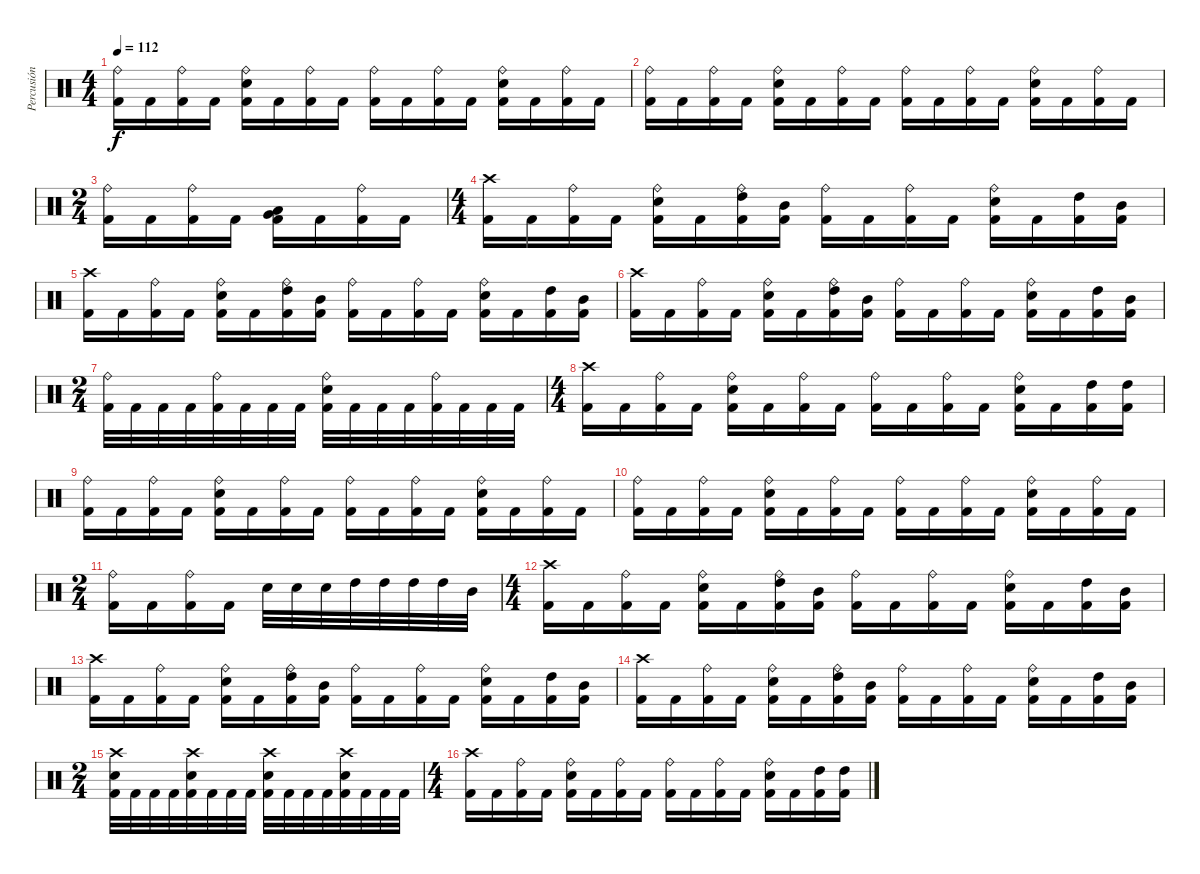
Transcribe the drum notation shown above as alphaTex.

\track ("Percusión" "Percusión") {instrument percussion}
\staff {score}
\articulation defaults
\ts (4 4)
\tempo 112
\clef neutral
\ks c
("Ride (bell)" "Kick (hit) 2").16{dy f} "Kick (hit) 2".16 ("Ride (bell)" "Kick (hit) 2").16 "Kick (hit) 2".16 ("Ride (bell)" "Snare (hit) 2" "Kick (hit) 2").16 "Kick (hit) 2".16 ("Ride (bell)" "Kick (hit) 2").16 "Kick (hit) 2".16 ("Ride (bell)" "Kick (hit) 2").16 "Kick (hit) 2".16 ("Ride (bell)" "Kick (hit) 2").16 "Kick (hit) 2".16 ("Ride (bell)" "Snare (hit) 2" "Kick (hit) 2").16 "Kick (hit) 2".16 ("Ride (bell)" "Kick (hit) 2").16 "Kick (hit) 2".16 |
("Ride (bell)" "Kick (hit) 2").16 "Kick (hit) 2".16 ("Ride (bell)" "Kick (hit) 2").16 "Kick (hit) 2".16 ("Ride (bell)" "Snare (hit) 2" "Kick (hit) 2").16 "Kick (hit) 2".16 ("Ride (bell)" "Kick (hit) 2").16 "Kick (hit) 2".16 ("Ride (bell)" "Kick (hit) 2").16 "Kick (hit) 2".16 ("Ride (bell)" "Kick (hit) 2").16 "Kick (hit) 2".16 ("Ride (bell)" "Snare (hit) 2" "Kick (hit) 2").16 "Kick (hit) 2".16 ("Ride (bell)" "Kick (hit) 2").16 "Kick (hit) 2".16 |
\ts (2 4)
("Ride (bell)" "Kick (hit) 2").16 "Kick (hit) 2".16 ("Ride (bell)" "Kick (hit) 2").16 "Kick (hit) 2".16 ("Very Low Tom (hit)" "Low Tom (hit)" "Kick (hit) 2").16 "Kick (hit) 2".16 ("Ride (bell)" "Kick (hit) 2").16 "Kick (hit) 2".16 |
\ts (4 4)
("Crash high (hit)" "Kick (hit) 2").16 "Kick (hit) 2".16 ("Ride (bell)" "Kick (hit) 2").16 "Kick (hit) 2".16 ("Ride (bell)" "Snare (hit) 2" "Kick (hit) 2").16 "Kick (hit) 2".16 ("Ride (bell)" "High Tom (hit)" "Kick (hit) 2").16 ("Mid Tom (hit)" "Kick (hit) 2").16 ("Ride (bell)" "Kick (hit) 2").16 "Kick (hit) 2".16 ("Ride (bell)" "Kick (hit) 2").16 "Kick (hit) 2".16 ("Ride (bell)" "Snare (hit) 2" "Kick (hit) 2").16 "Kick (hit) 2".16 ("High Tom (hit)" "Kick (hit) 2").16 ("Mid Tom (hit)" "Kick (hit) 2").16 |
("Crash high (hit)" "Kick (hit) 2").16 "Kick (hit) 2".16 ("Ride (bell)" "Kick (hit) 2").16 "Kick (hit) 2".16 ("Ride (bell)" "Snare (hit) 2" "Kick (hit) 2").16 "Kick (hit) 2".16 ("Ride (bell)" "High Tom (hit)" "Kick (hit) 2").16 ("Mid Tom (hit)" "Kick (hit) 2").16 ("Ride (bell)" "Kick (hit) 2").16 "Kick (hit) 2".16 ("Ride (bell)" "Kick (hit) 2").16 "Kick (hit) 2".16 ("Ride (bell)" "Snare (hit) 2" "Kick (hit) 2").16 "Kick (hit) 2".16 ("High Tom (hit)" "Kick (hit) 2").16 ("Mid Tom (hit)" "Kick (hit) 2").16 |
("Crash high (hit)" "Kick (hit) 2").16 "Kick (hit) 2".16 ("Ride (bell)" "Kick (hit) 2").16 "Kick (hit) 2".16 ("Ride (bell)" "Snare (hit) 2" "Kick (hit) 2").16 "Kick (hit) 2".16 ("Ride (bell)" "High Tom (hit)" "Kick (hit) 2").16 ("Mid Tom (hit)" "Kick (hit) 2").16 ("Ride (bell)" "Kick (hit) 2").16 "Kick (hit) 2".16 ("Ride (bell)" "Kick (hit) 2").16 "Kick (hit) 2".16 ("Ride (bell)" "Snare (hit) 2" "Kick (hit) 2").16 "Kick (hit) 2".16 ("High Tom (hit)" "Kick (hit) 2").16 ("Mid Tom (hit)" "Kick (hit) 2").16 |
\ts (2 4)
("Ride (bell)" "Kick (hit) 2").32 "Kick (hit) 2".32 "Kick (hit) 2".32 "Kick (hit) 2".32 ("Ride (bell)" "Kick (hit) 2").32 "Kick (hit) 2".32 "Kick (hit) 2".32 "Kick (hit) 2".32 ("Ride (bell)" "Snare (hit) 2" "Kick (hit) 2").32 "Kick (hit) 2".32 "Kick (hit) 2".32 "Kick (hit) 2".32 ("Ride (bell)" "Kick (hit) 2").32 "Kick (hit) 2".32 "Kick (hit) 2".32 "Kick (hit) 2".32 |
\ts (4 4)
("Crash high (hit)" "Kick (hit) 2").16 "Kick (hit) 2".16 ("Ride (bell)" "Kick (hit) 2").16 "Kick (hit) 2".16 ("Ride (bell)" "Snare (hit) 2" "Kick (hit) 2").16 "Kick (hit) 2".16 ("Ride (bell)" "Kick (hit) 2").16 "Kick (hit) 2".16 ("Ride (bell)" "Kick (hit) 2").16 "Kick (hit) 2".16 ("Ride (bell)" "Kick (hit) 2").16 "Kick (hit) 2".16 ("Ride (bell)" "Snare (hit) 2" "Kick (hit) 2").16 "Kick (hit) 2".16 ("High Tom (hit)" "Kick (hit) 2").16 ("High Tom (hit)" "Kick (hit) 2").16 |
("Ride (bell)" "Kick (hit) 2").16 "Kick (hit) 2".16 ("Ride (bell)" "Kick (hit) 2").16 "Kick (hit) 2".16 ("Ride (bell)" "Snare (hit) 2" "Kick (hit) 2").16 "Kick (hit) 2".16 ("Ride (bell)" "Kick (hit) 2").16 "Kick (hit) 2".16 ("Ride (bell)" "Kick (hit) 2").16 "Kick (hit) 2".16 ("Ride (bell)" "Kick (hit) 2").16 "Kick (hit) 2".16 ("Ride (bell)" "Snare (hit) 2" "Kick (hit) 2").16 "Kick (hit) 2".16 ("Ride (bell)" "Kick (hit) 2").16 "Kick (hit) 2".16 |
("Ride (bell)" "Kick (hit) 2").16 "Kick (hit) 2".16 ("Ride (bell)" "Kick (hit) 2").16 "Kick (hit) 2".16 ("Ride (bell)" "Snare (hit) 2" "Kick (hit) 2").16 "Kick (hit) 2".16 ("Ride (bell)" "Kick (hit) 2").16 "Kick (hit) 2".16 ("Ride (bell)" "Kick (hit) 2").16 "Kick (hit) 2".16 ("Ride (bell)" "Kick (hit) 2").16 "Kick (hit) 2".16 ("Ride (bell)" "Snare (hit) 2" "Kick (hit) 2").16 "Kick (hit) 2".16 ("Ride (bell)" "Kick (hit) 2").16 "Kick (hit) 2".16 |
\ts (2 4)
("Ride (bell)" "Kick (hit) 2").16 "Kick (hit) 2".16 ("Ride (bell)" "Kick (hit) 2").16 "Kick (hit) 2".16 "Snare (hit) 2".32 "Snare (hit) 2".32 "Snare (hit) 2".32 "High Tom (hit)".32 "High Tom (hit)".32 "High Tom (hit)".32 "High Tom (hit)".32 "Mid Tom (hit)".32 |
\ts (4 4)
("Crash high (hit)" "Kick (hit) 2").16{volume 0} "Kick (hit) 2".16 ("Ride (bell)" "Kick (hit) 2").16 "Kick (hit) 2".16 ("Ride (bell)" "Snare (hit) 2" "Kick (hit) 2").16 "Kick (hit) 2".16 ("Ride (bell)" "High Tom (hit)" "Kick (hit) 2").16 ("Mid Tom (hit)" "Kick (hit) 2").16 ("Ride (bell)" "Kick (hit) 2").16 "Kick (hit) 2".16 ("Ride (bell)" "Kick (hit) 2").16 "Kick (hit) 2".16 ("Ride (bell)" "Snare (hit) 2" "Kick (hit) 2").16 "Kick (hit) 2".16 ("High Tom (hit)" "Kick (hit) 2").16 ("Mid Tom (hit)" "Kick (hit) 2").16 |
("Crash high (hit)" "Kick (hit) 2").16 "Kick (hit) 2".16 ("Ride (bell)" "Kick (hit) 2").16 "Kick (hit) 2".16 ("Ride (bell)" "Snare (hit) 2" "Kick (hit) 2").16 "Kick (hit) 2".16 ("Ride (bell)" "High Tom (hit)" "Kick (hit) 2").16 ("Mid Tom (hit)" "Kick (hit) 2").16 ("Ride (bell)" "Kick (hit) 2").16 "Kick (hit) 2".16 ("Ride (bell)" "Kick (hit) 2").16 "Kick (hit) 2".16 ("Ride (bell)" "Snare (hit) 2" "Kick (hit) 2").16 "Kick (hit) 2".16 ("High Tom (hit)" "Kick (hit) 2").16 ("Mid Tom (hit)" "Kick (hit) 2").16 |
("Crash high (hit)" "Kick (hit) 2").16 "Kick (hit) 2".16 ("Ride (bell)" "Kick (hit) 2").16 "Kick (hit) 2".16 ("Ride (bell)" "Snare (hit) 2" "Kick (hit) 2").16 "Kick (hit) 2".16 ("Ride (bell)" "High Tom (hit)" "Kick (hit) 2").16 ("Mid Tom (hit)" "Kick (hit) 2").16 ("Ride (bell)" "Kick (hit) 2").16 "Kick (hit) 2".16 ("Ride (bell)" "Kick (hit) 2").16 "Kick (hit) 2".16 ("Ride (bell)" "Snare (hit) 2" "Kick (hit) 2").16 "Kick (hit) 2".16 ("High Tom (hit)" "Kick (hit) 2").16 ("Mid Tom (hit)" "Kick (hit) 2").16 |
\ts (2 4)
("Crash high (hit)" "Snare (hit) 2" "Kick (hit) 2").32 "Kick (hit) 2".32 "Kick (hit) 2".32 "Kick (hit) 2".32 ("Crash high (hit)" "Snare (hit) 2" "Kick (hit) 2").32 "Kick (hit) 2".32 "Kick (hit) 2".32 "Kick (hit) 2".32 ("Crash high (hit)" "Snare (hit) 2" "Kick (hit) 2").32 "Kick (hit) 2".32 "Kick (hit) 2".32 "Kick (hit) 2".32 ("Crash high (hit)" "Snare (hit) 2" "Kick (hit) 2").32 "Kick (hit) 2".32 "Kick (hit) 2".32 "Kick (hit) 2".32 |
\ts (4 4)
("Crash high (hit)" "Kick (hit) 2").16 "Kick (hit) 2".16 ("Ride (bell)" "Kick (hit) 2").16 "Kick (hit) 2".16 ("Ride (bell)" "Snare (hit) 2" "Kick (hit) 2").16 "Kick (hit) 2".16 ("Ride (bell)" "Kick (hit) 2").16 "Kick (hit) 2".16 ("Ride (bell)" "Kick (hit) 2").16 "Kick (hit) 2".16 ("Ride (bell)" "Kick (hit) 2").16 "Kick (hit) 2".16 ("Ride (bell)" "Snare (hit) 2" "Kick (hit) 2").16 "Kick (hit) 2".16 ("High Tom (hit)" "Kick (hit) 2").16 ("High Tom (hit)" "Kick (hit) 2").16
